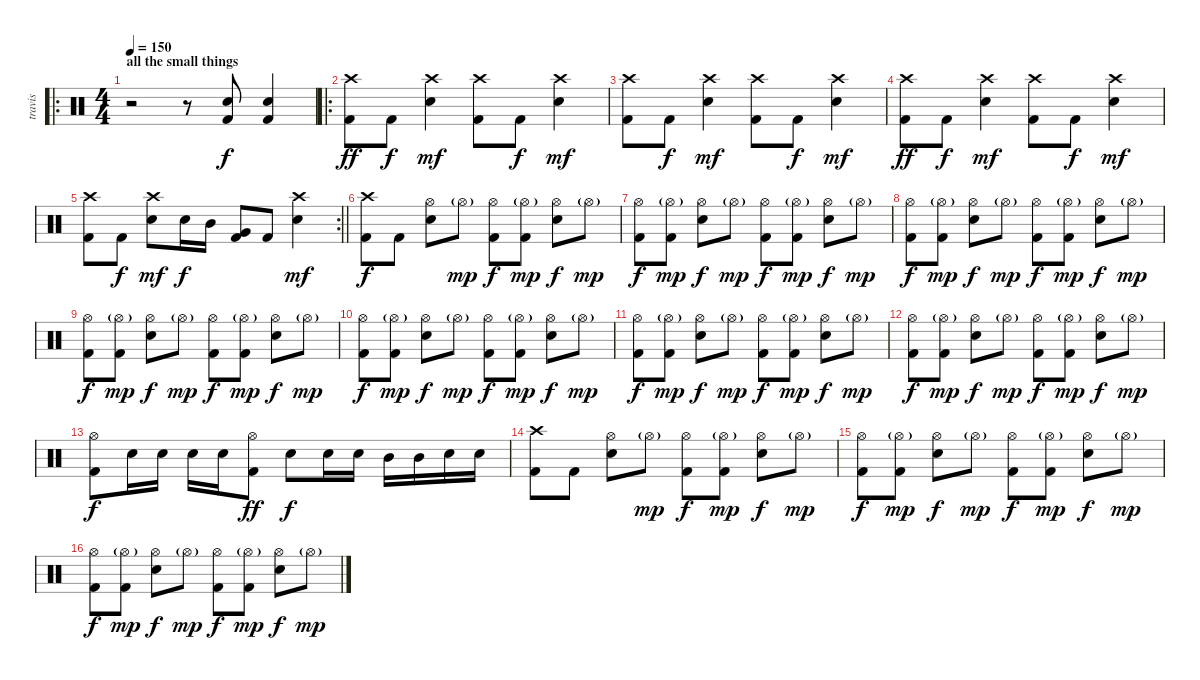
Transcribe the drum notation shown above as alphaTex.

\track ("travis" "travis") {instrument percussion}
\staff {score}
\articulation defaults
\ro
\ts (4 4)
\section ("" "all the small things")
\tempo 150
\clef neutral
\ks c
r.2{dy f} r.8 ("Electric Snare (hit)" "Kick (hit) 2").8 ("Electric Snare (hit)" "Kick (hit) 2").4 |
\ro
("Crash high (hit)" "Kick (hit) 2").8{dy ff} "Kick (hit) 2".8{dy f} ("Crash high (hit)" "Electric Snare (hit)").4{dy mf} ("Crash high (hit)" "Kick (hit) 2").8 "Kick (hit) 2".8{dy f} ("Crash high (hit)" "Electric Snare (hit)").4{dy mf} |
("Crash high (hit)" "Kick (hit) 2").8 "Kick (hit) 2".8{dy f} ("Crash high (hit)" "Electric Snare (hit)").4{dy mf} ("Crash high (hit)" "Kick (hit) 2").8 "Kick (hit) 2".8{dy f} ("Crash high (hit)" "Electric Snare (hit)").4{dy mf} |
("Crash high (hit)" "Kick (hit) 2").8{dy ff} "Kick (hit) 2".8{dy f} ("Crash high (hit)" "Electric Snare (hit)").4{dy mf} ("Crash high (hit)" "Kick (hit) 2").8 "Kick (hit) 2".8{dy f} ("Crash high (hit)" "Electric Snare (hit)").4{dy mf} |
\rc 2
\barLineRight lightlight
("Crash high (hit)" "Kick (hit) 2").8 "Kick (hit) 2".8{dy f} ("Crash high (hit)" "Electric Snare (hit)").8{dy mf} "Electric Snare (hit)".16{dy f} "Mid Tom (hit)".16 ("Very Low Tom (hit)" "Kick (hit) 2").8 "Kick (hit) 2".8 ("Crash high (hit)" "Electric Snare (hit)").4{dy mf} |
("Crash high (hit)" "Kick (hit) 2").8{dy f} "Kick (hit) 2".8 ("Hi-Hat (open)" "Electric Snare (hit)").8 "Hi-Hat (open)"{g}.8{dy mp} ("Hi-Hat (open)" "Kick (hit) 2").8{dy f} ("Hi-Hat (open)"{g} "Kick (hit) 2").8{dy mp} ("Hi-Hat (open)" "Electric Snare (hit)").8{dy f} "Hi-Hat (open)"{g}.8{dy mp} |
("Hi-Hat (open)" "Kick (hit) 2").8{dy f} ("Hi-Hat (open)"{g} "Kick (hit) 2").8{dy mp} ("Hi-Hat (open)" "Electric Snare (hit)").8{dy f} "Hi-Hat (open)"{g}.8{dy mp} ("Hi-Hat (open)" "Kick (hit) 2").8{dy f} ("Hi-Hat (open)"{g} "Kick (hit) 2").8{dy mp} ("Hi-Hat (open)" "Electric Snare (hit)").8{dy f} "Hi-Hat (open)"{g}.8{dy mp} |
("Hi-Hat (open)" "Kick (hit) 2").8{dy f} ("Hi-Hat (open)"{g} "Kick (hit) 2").8{dy mp} ("Hi-Hat (open)" "Electric Snare (hit)").8{dy f} "Hi-Hat (open)"{g}.8{dy mp} ("Hi-Hat (open)" "Kick (hit) 2").8{dy f} ("Hi-Hat (open)"{g} "Kick (hit) 2").8{dy mp} ("Hi-Hat (open)" "Electric Snare (hit)").8{dy f} "Hi-Hat (open)"{g}.8{dy mp} |
("Hi-Hat (open)" "Kick (hit) 2").8{dy f} ("Hi-Hat (open)"{g} "Kick (hit) 2").8{dy mp} ("Hi-Hat (open)" "Electric Snare (hit)").8{dy f} "Hi-Hat (open)"{g}.8{dy mp} ("Hi-Hat (open)" "Kick (hit) 2").8{dy f} ("Hi-Hat (open)"{g} "Kick (hit) 2").8{dy mp} ("Hi-Hat (open)" "Electric Snare (hit)").8{dy f} "Hi-Hat (open)"{g}.8{dy mp} |
("Hi-Hat (open)" "Kick (hit) 2").8{dy f} ("Hi-Hat (open)"{g} "Kick (hit) 2").8{dy mp} ("Hi-Hat (open)" "Electric Snare (hit)").8{dy f} "Hi-Hat (open)"{g}.8{dy mp} ("Hi-Hat (open)" "Kick (hit) 2").8{dy f} ("Hi-Hat (open)"{g} "Kick (hit) 2").8{dy mp} ("Hi-Hat (open)" "Electric Snare (hit)").8{dy f} "Hi-Hat (open)"{g}.8{dy mp} |
("Hi-Hat (open)" "Kick (hit) 2").8{dy f} ("Hi-Hat (open)"{g} "Kick (hit) 2").8{dy mp} ("Hi-Hat (open)" "Electric Snare (hit)").8{dy f} "Hi-Hat (open)"{g}.8{dy mp} ("Hi-Hat (open)" "Kick (hit) 2").8{dy f} ("Hi-Hat (open)"{g} "Kick (hit) 2").8{dy mp} ("Hi-Hat (open)" "Electric Snare (hit)").8{dy f} "Hi-Hat (open)"{g}.8{dy mp} |
("Hi-Hat (open)" "Kick (hit) 2").8{dy f} ("Hi-Hat (open)"{g} "Kick (hit) 2").8{dy mp} ("Hi-Hat (open)" "Electric Snare (hit)").8{dy f} "Hi-Hat (open)"{g}.8{dy mp} ("Hi-Hat (open)" "Kick (hit) 2").8{dy f} ("Hi-Hat (open)"{g} "Kick (hit) 2").8{dy mp} ("Hi-Hat (open)" "Electric Snare (hit)").8{dy f} "Hi-Hat (open)"{g}.8{dy mp} |
("Hi-Hat (open)" "Kick (hit) 2").8{dy f} "Electric Snare (hit)".16 "Electric Snare (hit)".16 "Electric Snare (hit)".16 "Electric Snare (hit)".16 ("Hi-Hat (open)" "Kick (hit) 2").8{dy ff} "Electric Snare (hit)".8{dy f} "Electric Snare (hit)".16 "Electric Snare (hit)".16 "Mid Tom (hit)".16 "Mid Tom (hit)".16 "Electric Snare (hit)".16 "Electric Snare (hit)".16 |
("Crash high (hit)" "Kick (hit) 2").8 "Kick (hit) 2".8 ("Hi-Hat (open)" "Electric Snare (hit)").8 "Hi-Hat (open)"{g}.8{dy mp} ("Hi-Hat (open)" "Kick (hit) 2").8{dy f} ("Hi-Hat (open)"{g} "Kick (hit) 2").8{dy mp} ("Hi-Hat (open)" "Electric Snare (hit)").8{dy f} "Hi-Hat (open)"{g}.8{dy mp} |
("Hi-Hat (open)" "Kick (hit) 2").8{dy f} ("Hi-Hat (open)"{g} "Kick (hit) 2").8{dy mp} ("Hi-Hat (open)" "Electric Snare (hit)").8{dy f} "Hi-Hat (open)"{g}.8{dy mp} ("Hi-Hat (open)" "Kick (hit) 2").8{dy f} ("Hi-Hat (open)"{g} "Kick (hit) 2").8{dy mp} ("Hi-Hat (open)" "Electric Snare (hit)").8{dy f} "Hi-Hat (open)"{g}.8{dy mp} |
("Hi-Hat (open)" "Kick (hit) 2").8{dy f} ("Hi-Hat (open)"{g} "Kick (hit) 2").8{dy mp} ("Hi-Hat (open)" "Electric Snare (hit)").8{dy f} "Hi-Hat (open)"{g}.8{dy mp} ("Hi-Hat (open)" "Kick (hit) 2").8{dy f} ("Hi-Hat (open)"{g} "Kick (hit) 2").8{dy mp} ("Hi-Hat (open)" "Electric Snare (hit)").8{dy f} "Hi-Hat (open)"{g}.8{dy mp}
